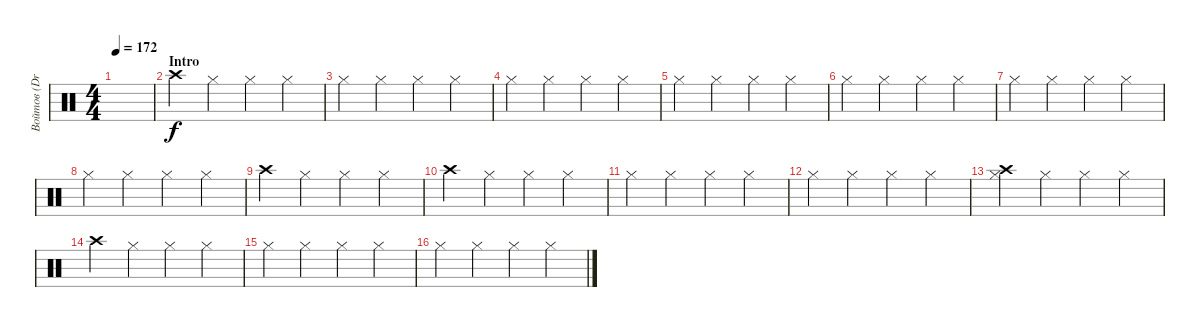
\track ("Войтов (Drums)" "Войтов (Dr") {instrument percussion}
\staff {score}
\articulation defaults
\ts (4 4)
\tempo 172
\clef neutral
\ks c
|
\section ("" "Intro")
"Crash high (hit)".4 "Hi-Hat (closed)".4 "Hi-Hat (closed)".4 "Hi-Hat (closed)".4 |
"Hi-Hat (closed)".4 "Hi-Hat (closed)".4 "Hi-Hat (closed)".4 "Hi-Hat (closed)".4 |
"Hi-Hat (closed)".4 "Hi-Hat (closed)".4 "Hi-Hat (closed)".4 "Hi-Hat (closed)".4 |
"Hi-Hat (closed)".4 "Hi-Hat (closed)".4 "Hi-Hat (closed)".4 "Hi-Hat (closed)".4 |
"Hi-Hat (closed)".4 "Hi-Hat (closed)".4 "Hi-Hat (closed)".4 "Hi-Hat (closed)".4 |
"Hi-Hat (closed)".4 "Hi-Hat (closed)".4 "Hi-Hat (closed)".4 "Hi-Hat (closed)".4 |
"Hi-Hat (closed)".4 "Hi-Hat (closed)".4 "Hi-Hat (closed)".4 "Hi-Hat (closed)".4 |
"Crash high (hit)".4 "Hi-Hat (closed)".4 "Hi-Hat (closed)".4 "Hi-Hat (closed)".4 |
"Crash high (hit)".4 "Hi-Hat (closed)".4 "Hi-Hat (closed)".4 "Hi-Hat (closed)".4 |
"Hi-Hat (closed)".4 "Hi-Hat (closed)".4 "Hi-Hat (closed)".4 "Hi-Hat (closed)".4 |
"Hi-Hat (closed)".4 "Hi-Hat (closed)".4 "Hi-Hat (closed)".4 "Hi-Hat (closed)".4 |
("Crash high (hit)" "Hi-Hat (closed)").4 "Hi-Hat (closed)".4 "Hi-Hat (closed)".4 "Hi-Hat (closed)".4 |
"Crash high (hit)".4 "Hi-Hat (closed)".4 "Hi-Hat (closed)".4 "Hi-Hat (closed)".4 |
"Hi-Hat (closed)".4 "Hi-Hat (closed)".4 "Hi-Hat (closed)".4 "Hi-Hat (closed)".4 |
"Hi-Hat (closed)".4 "Hi-Hat (closed)".4 "Hi-Hat (closed)".4 "Hi-Hat (closed)".4
